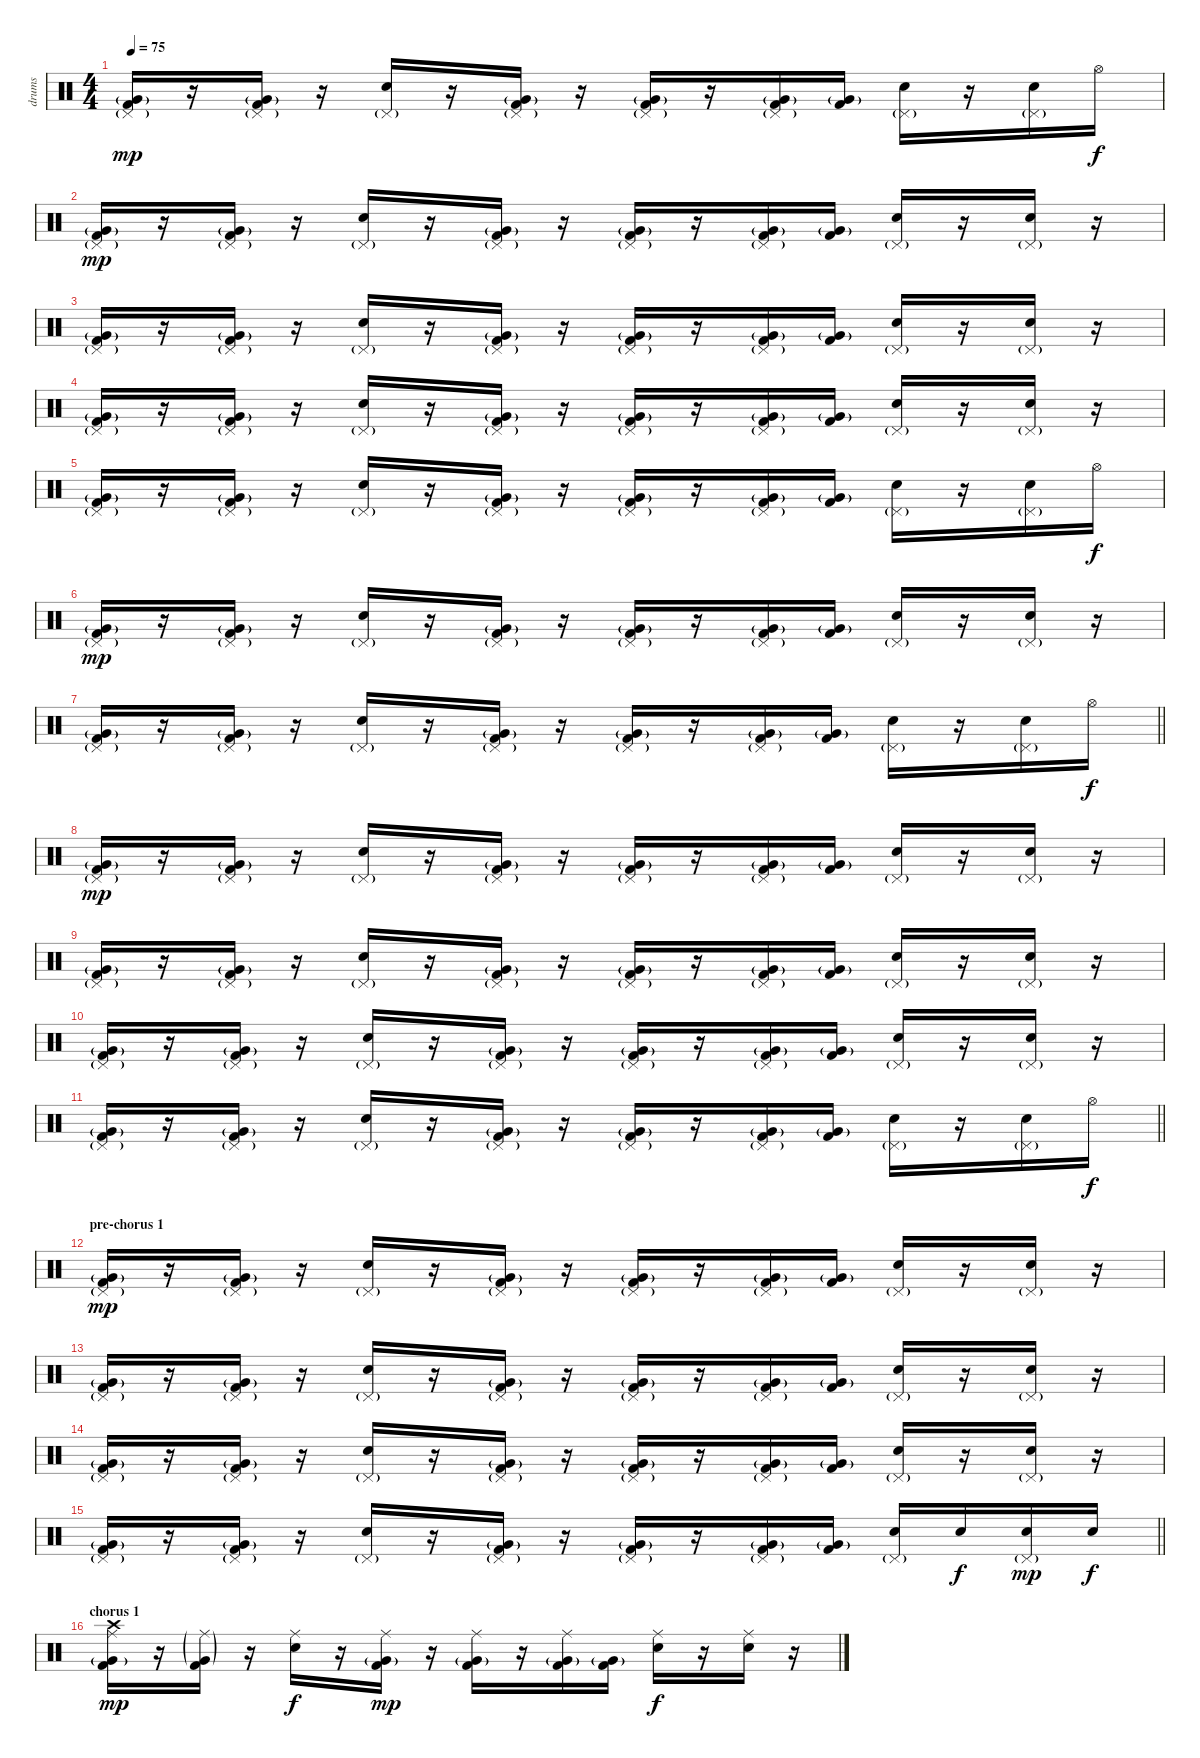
\track ("drums" "drums") {instrument percussion}
\staff {score}
\articulation defaults
\ts (4 4)
\tempo 75
\clef neutral
\ks c
("Kick (hit) 2" "Very Low Tom (hit)"{g} "Pedal Hi-Hat (hit)"{g}).16{dy mp} r.16 ("Kick (hit) 2" "Very Low Tom (hit)"{g} "Pedal Hi-Hat (hit)"{g}).16 r.16 ("Electric Snare (hit)" "Pedal Hi-Hat (hit)"{g}).16 r.16 ("Kick (hit) 2" "Very Low Tom (hit)"{g} "Pedal Hi-Hat (hit)"{g}).16 r.16 ("Kick (hit) 2" "Very Low Tom (hit)"{g} "Pedal Hi-Hat (hit)"{g}).16 r.16 ("Kick (hit) 2" "Very Low Tom (hit)"{g} "Pedal Hi-Hat (hit)"{g}).16 ("Kick (hit) 2" "Very Low Tom (hit)"{g}).16 ("Electric Snare (hit)" "Pedal Hi-Hat (hit)"{g}).16 r.16 ("Electric Snare (hit)" "Pedal Hi-Hat (hit)"{g}).16 "Hi-Hat (open)".16{dy f} |
("Kick (hit) 2" "Very Low Tom (hit)"{g} "Pedal Hi-Hat (hit)"{g}).16{dy mp} r.16 ("Kick (hit) 2" "Very Low Tom (hit)"{g} "Pedal Hi-Hat (hit)"{g}).16 r.16 ("Electric Snare (hit)" "Pedal Hi-Hat (hit)"{g}).16 r.16 ("Kick (hit) 2" "Very Low Tom (hit)"{g} "Pedal Hi-Hat (hit)"{g}).16 r.16 ("Kick (hit) 2" "Very Low Tom (hit)"{g} "Pedal Hi-Hat (hit)"{g}).16 r.16 ("Kick (hit) 2" "Very Low Tom (hit)"{g} "Pedal Hi-Hat (hit)"{g}).16 ("Kick (hit) 2" "Very Low Tom (hit)"{g}).16 ("Electric Snare (hit)" "Pedal Hi-Hat (hit)"{g}).16 r.16 ("Electric Snare (hit)" "Pedal Hi-Hat (hit)"{g}).16 r.16 |
("Kick (hit) 2" "Very Low Tom (hit)"{g} "Pedal Hi-Hat (hit)"{g}).16 r.16 ("Kick (hit) 2" "Very Low Tom (hit)"{g} "Pedal Hi-Hat (hit)"{g}).16 r.16 ("Electric Snare (hit)" "Pedal Hi-Hat (hit)"{g}).16 r.16 ("Kick (hit) 2" "Very Low Tom (hit)"{g} "Pedal Hi-Hat (hit)"{g}).16 r.16 ("Kick (hit) 2" "Very Low Tom (hit)"{g} "Pedal Hi-Hat (hit)"{g}).16 r.16 ("Kick (hit) 2" "Very Low Tom (hit)"{g} "Pedal Hi-Hat (hit)"{g}).16 ("Kick (hit) 2" "Very Low Tom (hit)"{g}).16 ("Electric Snare (hit)" "Pedal Hi-Hat (hit)"{g}).16 r.16 ("Electric Snare (hit)" "Pedal Hi-Hat (hit)"{g}).16 r.16 |
("Kick (hit) 2" "Very Low Tom (hit)"{g} "Pedal Hi-Hat (hit)"{g}).16 r.16 ("Kick (hit) 2" "Very Low Tom (hit)"{g} "Pedal Hi-Hat (hit)"{g}).16 r.16 ("Electric Snare (hit)" "Pedal Hi-Hat (hit)"{g}).16 r.16 ("Kick (hit) 2" "Very Low Tom (hit)"{g} "Pedal Hi-Hat (hit)"{g}).16 r.16 ("Kick (hit) 2" "Very Low Tom (hit)"{g} "Pedal Hi-Hat (hit)"{g}).16 r.16 ("Kick (hit) 2" "Very Low Tom (hit)"{g} "Pedal Hi-Hat (hit)"{g}).16 ("Kick (hit) 2" "Very Low Tom (hit)"{g}).16 ("Electric Snare (hit)" "Pedal Hi-Hat (hit)"{g}).16 r.16 ("Electric Snare (hit)" "Pedal Hi-Hat (hit)"{g}).16 r.16 |
("Kick (hit) 2" "Very Low Tom (hit)"{g} "Pedal Hi-Hat (hit)"{g}).16 r.16 ("Kick (hit) 2" "Very Low Tom (hit)"{g} "Pedal Hi-Hat (hit)"{g}).16 r.16 ("Electric Snare (hit)" "Pedal Hi-Hat (hit)"{g}).16 r.16 ("Kick (hit) 2" "Very Low Tom (hit)"{g} "Pedal Hi-Hat (hit)"{g}).16 r.16 ("Kick (hit) 2" "Very Low Tom (hit)"{g} "Pedal Hi-Hat (hit)"{g}).16 r.16 ("Kick (hit) 2" "Very Low Tom (hit)"{g} "Pedal Hi-Hat (hit)"{g}).16 ("Kick (hit) 2" "Very Low Tom (hit)"{g}).16 ("Electric Snare (hit)" "Pedal Hi-Hat (hit)"{g}).16 r.16 ("Electric Snare (hit)" "Pedal Hi-Hat (hit)"{g}).16 "Hi-Hat (open)".16{dy f} |
("Kick (hit) 2" "Very Low Tom (hit)"{g} "Pedal Hi-Hat (hit)"{g}).16{dy mp} r.16 ("Kick (hit) 2" "Very Low Tom (hit)"{g} "Pedal Hi-Hat (hit)"{g}).16 r.16 ("Electric Snare (hit)" "Pedal Hi-Hat (hit)"{g}).16 r.16 ("Kick (hit) 2" "Very Low Tom (hit)"{g} "Pedal Hi-Hat (hit)"{g}).16 r.16 ("Kick (hit) 2" "Very Low Tom (hit)"{g} "Pedal Hi-Hat (hit)"{g}).16 r.16 ("Kick (hit) 2" "Very Low Tom (hit)"{g} "Pedal Hi-Hat (hit)"{g}).16 ("Kick (hit) 2" "Very Low Tom (hit)"{g}).16 ("Electric Snare (hit)" "Pedal Hi-Hat (hit)"{g}).16 r.16 ("Electric Snare (hit)" "Pedal Hi-Hat (hit)"{g}).16 r.16 |
\barLineRight lightlight
("Kick (hit) 2" "Very Low Tom (hit)"{g} "Pedal Hi-Hat (hit)"{g}).16 r.16 ("Kick (hit) 2" "Very Low Tom (hit)"{g} "Pedal Hi-Hat (hit)"{g}).16 r.16 ("Electric Snare (hit)" "Pedal Hi-Hat (hit)"{g}).16 r.16 ("Kick (hit) 2" "Very Low Tom (hit)"{g} "Pedal Hi-Hat (hit)"{g}).16 r.16 ("Kick (hit) 2" "Very Low Tom (hit)"{g} "Pedal Hi-Hat (hit)"{g}).16 r.16 ("Kick (hit) 2" "Very Low Tom (hit)"{g} "Pedal Hi-Hat (hit)"{g}).16 ("Kick (hit) 2" "Very Low Tom (hit)"{g}).16 ("Electric Snare (hit)" "Pedal Hi-Hat (hit)"{g}).16 r.16 ("Electric Snare (hit)" "Pedal Hi-Hat (hit)"{g}).16 "Hi-Hat (open)".16{dy f} |
("Kick (hit) 2" "Very Low Tom (hit)"{g} "Pedal Hi-Hat (hit)"{g}).16{dy mp} r.16 ("Kick (hit) 2" "Very Low Tom (hit)"{g} "Pedal Hi-Hat (hit)"{g}).16 r.16 ("Electric Snare (hit)" "Pedal Hi-Hat (hit)"{g}).16 r.16 ("Kick (hit) 2" "Very Low Tom (hit)"{g} "Pedal Hi-Hat (hit)"{g}).16 r.16 ("Kick (hit) 2" "Very Low Tom (hit)"{g} "Pedal Hi-Hat (hit)"{g}).16 r.16 ("Kick (hit) 2" "Very Low Tom (hit)"{g} "Pedal Hi-Hat (hit)"{g}).16 ("Kick (hit) 2" "Very Low Tom (hit)"{g}).16 ("Electric Snare (hit)" "Pedal Hi-Hat (hit)"{g}).16 r.16 ("Electric Snare (hit)" "Pedal Hi-Hat (hit)"{g}).16 r.16 |
("Kick (hit) 2" "Very Low Tom (hit)"{g} "Pedal Hi-Hat (hit)"{g}).16 r.16 ("Kick (hit) 2" "Very Low Tom (hit)"{g} "Pedal Hi-Hat (hit)"{g}).16 r.16 ("Electric Snare (hit)" "Pedal Hi-Hat (hit)"{g}).16 r.16 ("Kick (hit) 2" "Very Low Tom (hit)"{g} "Pedal Hi-Hat (hit)"{g}).16 r.16 ("Kick (hit) 2" "Very Low Tom (hit)"{g} "Pedal Hi-Hat (hit)"{g}).16 r.16 ("Kick (hit) 2" "Very Low Tom (hit)"{g} "Pedal Hi-Hat (hit)"{g}).16 ("Kick (hit) 2" "Very Low Tom (hit)"{g}).16 ("Electric Snare (hit)" "Pedal Hi-Hat (hit)"{g}).16 r.16 ("Electric Snare (hit)" "Pedal Hi-Hat (hit)"{g}).16 r.16 |
("Kick (hit) 2" "Very Low Tom (hit)"{g} "Pedal Hi-Hat (hit)"{g}).16 r.16 ("Kick (hit) 2" "Very Low Tom (hit)"{g} "Pedal Hi-Hat (hit)"{g}).16 r.16 ("Electric Snare (hit)" "Pedal Hi-Hat (hit)"{g}).16 r.16 ("Kick (hit) 2" "Very Low Tom (hit)"{g} "Pedal Hi-Hat (hit)"{g}).16 r.16 ("Kick (hit) 2" "Very Low Tom (hit)"{g} "Pedal Hi-Hat (hit)"{g}).16 r.16 ("Kick (hit) 2" "Very Low Tom (hit)"{g} "Pedal Hi-Hat (hit)"{g}).16 ("Kick (hit) 2" "Very Low Tom (hit)"{g}).16 ("Electric Snare (hit)" "Pedal Hi-Hat (hit)"{g}).16 r.16 ("Electric Snare (hit)" "Pedal Hi-Hat (hit)"{g}).16 r.16 |
\barLineRight lightlight
("Kick (hit) 2" "Very Low Tom (hit)"{g} "Pedal Hi-Hat (hit)"{g}).16 r.16 ("Kick (hit) 2" "Very Low Tom (hit)"{g} "Pedal Hi-Hat (hit)"{g}).16 r.16 ("Electric Snare (hit)" "Pedal Hi-Hat (hit)"{g}).16 r.16 ("Kick (hit) 2" "Very Low Tom (hit)"{g} "Pedal Hi-Hat (hit)"{g}).16 r.16 ("Kick (hit) 2" "Very Low Tom (hit)"{g} "Pedal Hi-Hat (hit)"{g}).16 r.16 ("Kick (hit) 2" "Very Low Tom (hit)"{g} "Pedal Hi-Hat (hit)"{g}).16 ("Kick (hit) 2" "Very Low Tom (hit)"{g}).16 ("Electric Snare (hit)" "Pedal Hi-Hat (hit)"{g}).16 r.16 ("Electric Snare (hit)" "Pedal Hi-Hat (hit)"{g}).16 "Hi-Hat (open)".16{dy f} |
\section ("" "pre-chorus 1")
("Kick (hit) 2" "Very Low Tom (hit)"{g} "Pedal Hi-Hat (hit)"{g}).16{dy mp} r.16 ("Kick (hit) 2" "Very Low Tom (hit)"{g} "Pedal Hi-Hat (hit)"{g}).16 r.16 ("Electric Snare (hit)" "Pedal Hi-Hat (hit)"{g}).16 r.16 ("Kick (hit) 2" "Very Low Tom (hit)"{g} "Pedal Hi-Hat (hit)"{g}).16 r.16 ("Kick (hit) 2" "Very Low Tom (hit)"{g} "Pedal Hi-Hat (hit)"{g}).16 r.16 ("Kick (hit) 2" "Very Low Tom (hit)"{g} "Pedal Hi-Hat (hit)"{g}).16 ("Kick (hit) 2" "Very Low Tom (hit)"{g}).16 ("Electric Snare (hit)" "Pedal Hi-Hat (hit)"{g}).16 r.16 ("Electric Snare (hit)" "Pedal Hi-Hat (hit)"{g}).16 r.16 |
("Kick (hit) 2" "Very Low Tom (hit)"{g} "Pedal Hi-Hat (hit)"{g}).16 r.16 ("Kick (hit) 2" "Very Low Tom (hit)"{g} "Pedal Hi-Hat (hit)"{g}).16 r.16 ("Electric Snare (hit)" "Pedal Hi-Hat (hit)"{g}).16 r.16 ("Kick (hit) 2" "Very Low Tom (hit)"{g} "Pedal Hi-Hat (hit)"{g}).16 r.16 ("Kick (hit) 2" "Very Low Tom (hit)"{g} "Pedal Hi-Hat (hit)"{g}).16 r.16 ("Kick (hit) 2" "Very Low Tom (hit)"{g} "Pedal Hi-Hat (hit)"{g}).16 ("Kick (hit) 2" "Very Low Tom (hit)"{g}).16 ("Electric Snare (hit)" "Pedal Hi-Hat (hit)"{g}).16 r.16 ("Electric Snare (hit)" "Pedal Hi-Hat (hit)"{g}).16 r.16 |
("Kick (hit) 2" "Very Low Tom (hit)"{g} "Pedal Hi-Hat (hit)"{g}).16 r.16 ("Kick (hit) 2" "Very Low Tom (hit)"{g} "Pedal Hi-Hat (hit)"{g}).16 r.16 ("Electric Snare (hit)" "Pedal Hi-Hat (hit)"{g}).16 r.16 ("Kick (hit) 2" "Very Low Tom (hit)"{g} "Pedal Hi-Hat (hit)"{g}).16 r.16 ("Kick (hit) 2" "Very Low Tom (hit)"{g} "Pedal Hi-Hat (hit)"{g}).16 r.16 ("Kick (hit) 2" "Very Low Tom (hit)"{g} "Pedal Hi-Hat (hit)"{g}).16 ("Kick (hit) 2" "Very Low Tom (hit)"{g}).16 ("Electric Snare (hit)" "Pedal Hi-Hat (hit)"{g}).16 r.16 ("Electric Snare (hit)" "Pedal Hi-Hat (hit)"{g}).16 r.16 |
\barLineRight lightlight
("Kick (hit) 2" "Very Low Tom (hit)"{g} "Pedal Hi-Hat (hit)"{g}).16 r.16 ("Kick (hit) 2" "Very Low Tom (hit)"{g} "Pedal Hi-Hat (hit)"{g}).16 r.16 ("Electric Snare (hit)" "Pedal Hi-Hat (hit)"{g}).16 r.16 ("Kick (hit) 2" "Very Low Tom (hit)"{g} "Pedal Hi-Hat (hit)"{g}).16 r.16 ("Kick (hit) 2" "Very Low Tom (hit)"{g} "Pedal Hi-Hat (hit)"{g}).16 r.16 ("Kick (hit) 2" "Very Low Tom (hit)"{g} "Pedal Hi-Hat (hit)"{g}).16 ("Kick (hit) 2" "Very Low Tom (hit)"{g}).16 ("Electric Snare (hit)" "Pedal Hi-Hat (hit)"{g}).16 "Electric Snare (hit)".16{dy f} ("Electric Snare (hit)" "Pedal Hi-Hat (hit)"{g}).16{dy mp} "Electric Snare (hit)".16{dy f} |
\section ("" "chorus 1")
("Kick (hit) 2" "Very Low Tom (hit)"{g} "Ride (middle)" "Crash high (hit)").16{dy mp} r.16 ("Kick (hit) 2" "Very Low Tom (hit)"{g} "Ride (middle)"{g}).16 r.16 ("Electric Snare (hit)" "Ride (middle)").16{dy f} r.16 ("Kick (hit) 2" "Very Low Tom (hit)"{g} "Ride (middle)").16{dy mp} r.16 ("Kick (hit) 2" "Very Low Tom (hit)"{g} "Ride (middle)").16 r.16 ("Kick (hit) 2" "Very Low Tom (hit)"{g} "Ride (middle)").16 ("Kick (hit) 2" "Very Low Tom (hit)"{g}).16 ("Electric Snare (hit)" "Ride (middle)").16{dy f} r.16 ("Electric Snare (hit)" "Ride (middle)").16 r.16
